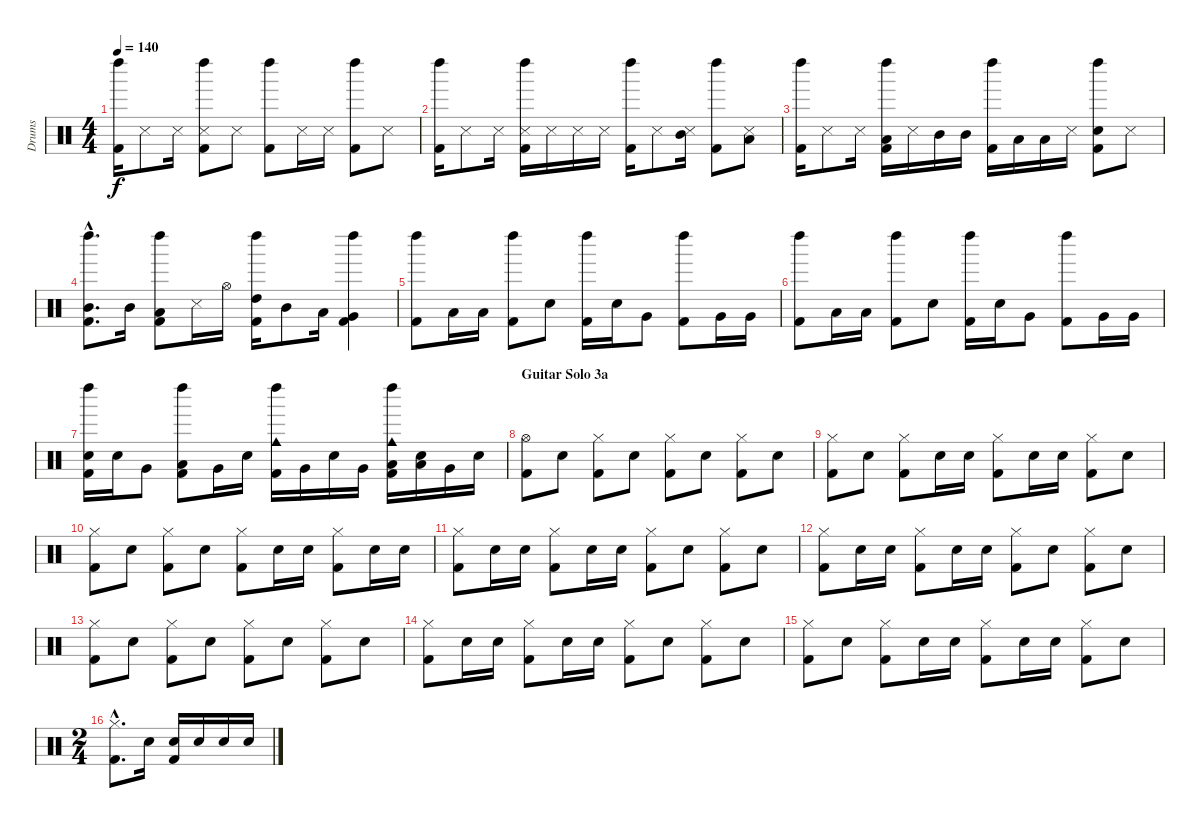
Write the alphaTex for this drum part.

\track ("Drums" "Drums") {instrument percussion}
\staff {score}
\articulation defaults
\ts (4 4)
\tempo 140
\clef neutral
\ks c
("Left Maraca (hit)" "Kick (hit) 2").16{dy f} "Snare (side stick) 3".8 "Snare (side stick) 3".16 ("Snare (side stick) 3" "Left Maraca (hit)" "Kick (hit) 2").8 "Snare (side stick) 3".8 ("Left Maraca (hit)" "Kick (hit) 2").8 "Snare (side stick) 3".16 "Snare (side stick) 3".16 ("Left Maraca (hit)" "Kick (hit) 2").8 "Snare (side stick) 3".8 |
("Left Maraca (hit)" "Kick (hit) 2").16 "Snare (side stick) 3".8 "Snare (side stick) 3".16 ("Snare (side stick) 3" "Left Maraca (hit)" "Kick (hit) 2").16 "Snare (side stick) 3".16 "Snare (side stick) 3".16 "Snare (side stick) 3".16 ("Left Maraca (hit)" "Kick (hit) 2").16 "Snare (side stick) 3".8 ("Mid Tom (hit)" "Snare (side stick) 3").16 ("Left Maraca (hit)" "Kick (hit) 2").8 ("Low Tom (hit)" "Snare (side stick) 3").8 |
("Left Maraca (hit)" "Kick (hit) 2").16 "Snare (side stick) 3".8 "Snare (side stick) 3".16 ("Low Tom (hit)" "Left Maraca (hit)" "Kick (hit) 2").16 "Snare (side stick) 3".16 "Mid Tom (hit)".16 "Mid Tom (hit)".16 ("Left Maraca (hit)" "Kick (hit) 2").16 "Low Tom (hit)".16 "Low Tom (hit)".16 "Snare (side stick) 3".16 ("Snare (hit) 2" "Left Maraca (hit)" "Kick (hit) 2").8 "Snare (side stick) 3".8 |
("Mid Tom (hit)"{hac} "Left Maraca (hit)"{hac} "Kick (hit) 2"{hac}).8{d} "Mid Tom (hit)".16 ("Low Tom (hit)" "Left Maraca (hit)" "Kick (hit) 2").8 "Snare (side stick) 3".16 "Hi-Hat (open)".16 ("High Tom (hit)" "Left Maraca (hit)" "Kick (hit) 2").16 "Mid Tom (hit)".8 "Low Tom (hit)".16 ("Very Low Tom (hit)" "Left Maraca (hit)" "Kick (hit) 2").4 |
("Left Maraca (hit)" "Kick (hit) 2").8 "Low Tom (hit)".16 "Low Tom (hit)".16 ("Left Maraca (hit)" "Kick (hit) 2").8 "Snare (hit) 2".8 ("Left Maraca (hit)" "Kick (hit) 2").16 "Snare (hit) 2".16 "Very Low Tom (hit)".8 ("Left Maraca (hit)" "Kick (hit) 2").8 "Very Low Tom (hit)".16 "Very Low Tom (hit)".16 |
("Left Maraca (hit)" "Kick (hit) 2").8 "Low Tom (hit)".16 "Low Tom (hit)".16 ("Left Maraca (hit)" "Kick (hit) 2").8 "Snare (hit) 2".8 ("Left Maraca (hit)" "Kick (hit) 2").16 "Snare (hit) 2".16 "Very Low Tom (hit)".8 ("Left Maraca (hit)" "Kick (hit) 2").8 "Very Low Tom (hit)".16 "Very Low Tom (hit)".16 |
("Snare (hit) 2" "Left Maraca (hit)" "Kick (hit) 2").16 "Snare (hit) 2".16 "Very Low Tom (hit)".8 ("Low Tom (hit)" "Left Maraca (hit)" "Kick (hit) 2").8 "Very Low Tom (hit)".16 "Snare (hit) 2".16 ("Cowbell medium (hit)" "Left Maraca (hit)" "Kick (hit) 2").16 "Very Low Tom (hit)".16 "Snare (hit) 2".16 "Very Low Tom (hit)".16 ("Cowbell medium (hit)" "Low Tom (hit)" "Left Maraca (hit)" "Kick (hit) 2").16 ("Snare (hit) 2" "Low Tom (hit)").16 "Very Low Tom (hit)".16 "Snare (hit) 2".16 |
\section ("" "Guitar Solo 3a")
("Hi-Hat (open)" "Kick (hit) 2").8 "Snare (hit) 2".8 ("Hi-Hat (closed)" "Kick (hit) 2").8 "Snare (hit) 2".8 ("Hi-Hat (closed)" "Kick (hit) 2").8 "Snare (hit) 2".8 ("Hi-Hat (closed)" "Kick (hit) 2").8 "Snare (hit) 2".8 |
("Hi-Hat (closed)" "Kick (hit) 2").8 "Snare (hit) 2".8 ("Hi-Hat (closed)" "Kick (hit) 2").8 "Snare (hit) 2".16 "Snare (hit) 2".16 ("Hi-Hat (closed)" "Kick (hit) 2").8 "Snare (hit) 2".16 "Snare (hit) 2".16 ("Hi-Hat (closed)" "Kick (hit) 2").8 "Snare (hit) 2".8 |
("Hi-Hat (closed)" "Kick (hit) 2").8 "Snare (hit) 2".8 ("Hi-Hat (closed)" "Kick (hit) 2").8 "Snare (hit) 2".8 ("Hi-Hat (closed)" "Kick (hit) 2").8 "Snare (hit) 2".16 "Snare (hit) 2".16 ("Hi-Hat (closed)" "Kick (hit) 2").8 "Snare (hit) 2".16 "Snare (hit) 2".16 |
("Hi-Hat (closed)" "Kick (hit) 2").8 "Snare (hit) 2".16 "Snare (hit) 2".16 ("Hi-Hat (closed)" "Kick (hit) 2").8 "Snare (hit) 2".16 "Snare (hit) 2".16 ("Hi-Hat (closed)" "Kick (hit) 2").8 "Snare (hit) 2".8 ("Hi-Hat (closed)" "Kick (hit) 2").8 "Snare (hit) 2".8 |
("Hi-Hat (closed)" "Kick (hit) 2").8 "Snare (hit) 2".16 "Snare (hit) 2".16 ("Hi-Hat (closed)" "Kick (hit) 2").8 "Snare (hit) 2".16 "Snare (hit) 2".16 ("Hi-Hat (closed)" "Kick (hit) 2").8 "Snare (hit) 2".8 ("Hi-Hat (closed)" "Kick (hit) 2").8 "Snare (hit) 2".8 |
("Hi-Hat (closed)" "Kick (hit) 2").8 "Snare (hit) 2".8 ("Hi-Hat (closed)" "Kick (hit) 2").8 "Snare (hit) 2".8 ("Hi-Hat (closed)" "Kick (hit) 2").8 "Snare (hit) 2".8 ("Hi-Hat (closed)" "Kick (hit) 2").8 "Snare (hit) 2".8 |
("Hi-Hat (closed)" "Kick (hit) 2").8 "Snare (hit) 2".16 "Snare (hit) 2".16 ("Hi-Hat (closed)" "Kick (hit) 2").8 "Snare (hit) 2".16 "Snare (hit) 2".16 ("Hi-Hat (closed)" "Kick (hit) 2").8 "Snare (hit) 2".8 ("Hi-Hat (closed)" "Kick (hit) 2").8 "Snare (hit) 2".8 |
("Hi-Hat (closed)" "Kick (hit) 2").8 "Snare (hit) 2".8 ("Hi-Hat (closed)" "Kick (hit) 2").8 "Snare (hit) 2".16 "Snare (hit) 2".16 ("Hi-Hat (closed)" "Kick (hit) 2").8 "Snare (hit) 2".16 "Snare (hit) 2".16 ("Hi-Hat (closed)" "Kick (hit) 2").8 "Snare (hit) 2".8 |
\ts (2 4)
("Hi-Hat (closed)"{hac} "Kick (hit) 2"{hac}).8{d} "Snare (hit) 2".16 ("Snare (hit) 2" "Kick (hit) 2").16 "Snare (hit) 2".16 "Snare (hit) 2".16 "Snare (hit) 2".16
